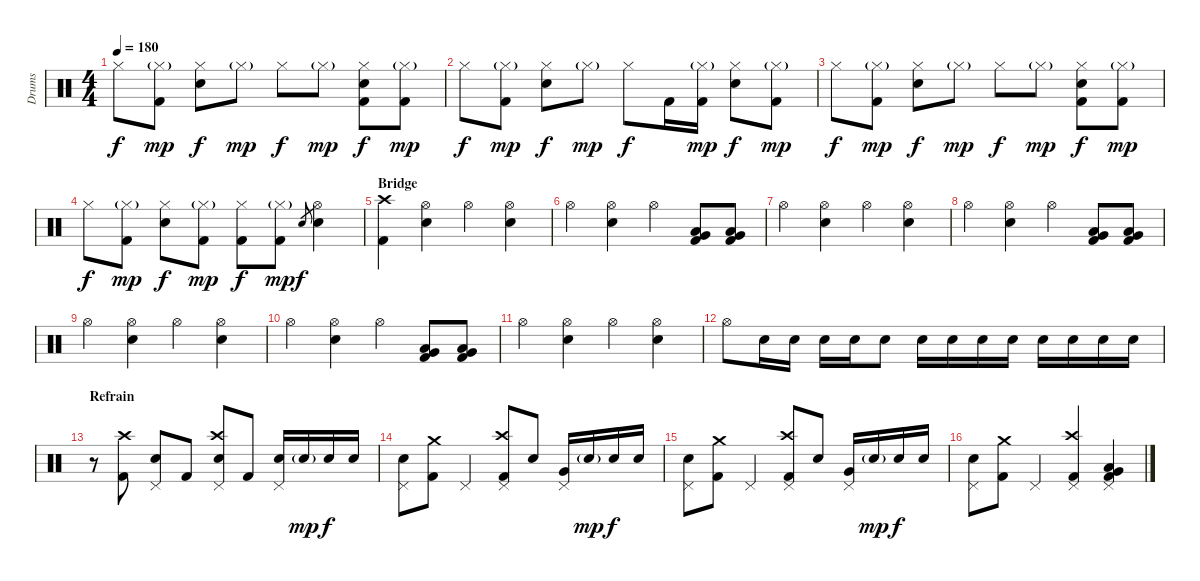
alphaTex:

\track ("Drums" "Drums") {instrument percussion}
\staff {score}
\articulation defaults
\ts (4 4)
\tempo 180
\clef neutral
\ks c "Hi-Hat (closed)".8{dy f}
("Hi-Hat (closed)"{g} "Kick (hit) 2").8{dy mp} ("Hi-Hat (closed)" "Snare (hit) 2").8{dy f} "Hi-Hat (closed)"{g}.8{dy mp} "Hi-Hat (closed)".8{dy f} "Hi-Hat (closed)"{g}.8{dy mp} ("Hi-Hat (closed)" "Snare (hit) 2" "Kick (hit) 2").8{dy f} ("Hi-Hat (closed)"{g} "Kick (hit) 2").8{dy mp} |
"Hi-Hat (closed)".8{dy f} ("Hi-Hat (closed)"{g} "Kick (hit) 2").8{dy mp} ("Hi-Hat (closed)" "Snare (hit) 2").8{dy f} "Hi-Hat (closed)"{g}.8{dy mp} "Hi-Hat (closed)".8{dy f} "Kick (hit) 2".16 ("Hi-Hat (closed)"{g} "Kick (hit) 2").16{dy mp} ("Hi-Hat (closed)" "Snare (hit) 2").8{dy f} ("Hi-Hat (closed)"{g} "Kick (hit) 2").8{dy mp} |
"Hi-Hat (closed)".8{dy f} ("Hi-Hat (closed)"{g} "Kick (hit) 2").8{dy mp} ("Hi-Hat (closed)" "Snare (hit) 2").8{dy f} "Hi-Hat (closed)"{g}.8{dy mp} "Hi-Hat (closed)".8{dy f} "Hi-Hat (closed)"{g}.8{dy mp} ("Hi-Hat (closed)" "Snare (hit) 2" "Kick (hit) 2").8{dy f} ("Hi-Hat (closed)"{g} "Kick (hit) 2").8{dy mp} |
"Hi-Hat (closed)".8{dy f} ("Hi-Hat (closed)"{g} "Kick (hit) 2").8{dy mp} ("Hi-Hat (closed)" "Snare (hit) 2").8{dy f} ("Hi-Hat (closed)"{g} "Kick (hit) 2").8{dy mp} ("Hi-Hat (closed)" "Kick (hit) 2").8{dy f} ("Hi-Hat (closed)"{g} "Kick (hit) 2").8{dy mp} "Snare (hit) 2".8{gr dy f} ("Hi-Hat (open)" "Snare (hit) 2").4 |
\section ("" "Bridge")
("Crash high (hit)" "Kick (hit) 2").4 ("Hi-Hat (open)" "Snare (hit) 2").4 "Hi-Hat (open)".4 ("Hi-Hat (open)" "Snare (hit) 2").4 |
"Hi-Hat (open)".4 ("Hi-Hat (open)" "Snare (hit) 2").4 "Hi-Hat (open)".4 ("Low Floor Tom (hit)" "Very Low Tom (hit)" "Kick (hit) 2").8 ("Low Floor Tom (hit)" "Very Low Tom (hit)" "Kick (hit) 2").8 |
"Hi-Hat (open)".4 ("Hi-Hat (open)" "Snare (hit) 2").4 "Hi-Hat (open)".4 ("Hi-Hat (open)" "Snare (hit) 2").4 |
"Hi-Hat (open)".4 ("Hi-Hat (open)" "Snare (hit) 2").4 "Hi-Hat (open)".4 ("Low Floor Tom (hit)" "Very Low Tom (hit)" "Kick (hit) 2").8 ("Low Floor Tom (hit)" "Very Low Tom (hit)" "Kick (hit) 2").8 |
"Hi-Hat (open)".4 ("Hi-Hat (open)" "Snare (hit) 2").4 "Hi-Hat (open)".4 ("Hi-Hat (open)" "Snare (hit) 2").4 |
"Hi-Hat (open)".4 ("Hi-Hat (open)" "Snare (hit) 2").4 "Hi-Hat (open)".4 ("Low Floor Tom (hit)" "Very Low Tom (hit)" "Kick (hit) 2").8 ("Low Floor Tom (hit)" "Very Low Tom (hit)" "Kick (hit) 2").8 |
"Hi-Hat (open)".4 ("Hi-Hat (open)" "Snare (hit) 2").4 "Hi-Hat (open)".4 ("Hi-Hat (open)" "Snare (hit) 2").4 |
"Hi-Hat (open)".8 "Snare (hit) 2".16 "Snare (hit) 2".16 "Snare (hit) 2".16 "Snare (hit) 2".16 "Snare (hit) 2".8 "Snare (hit) 2".16 "Snare (hit) 2".16 "Snare (hit) 2".16 "Snare (hit) 2".16 "Snare (hit) 2".16 "Snare (hit) 2".16 "Snare (hit) 2".16 "Snare (hit) 2".16 |
\section ("" "Refrain")
r.8 ("Crash high (hit)" "Kick (hit) 2").8 ("Pedal Hi-Hat (hit)" "Snare (hit) 2").8 "Kick (hit) 2".8 ("Crash high (hit)" "Pedal Hi-Hat (hit)" "Snare (hit) 2").8 "Kick (hit) 2".8 ("Pedal Hi-Hat (hit)" "Snare (hit) 2").16 "Snare (hit) 2"{g}.16{dy mp} "Snare (hit) 2".16{dy f} "Snare (hit) 2".16 |
("Pedal Hi-Hat (hit)" "Snare (hit) 2").8 ("Crash medium (hit)" "Kick (hit) 2").8 "Pedal Hi-Hat (hit)".4 ("Crash high (hit)" "Pedal Hi-Hat (hit)" "Kick (hit) 2").8 "Snare (hit) 2".8 ("Pedal Hi-Hat (hit)" "Very Low Tom (hit)").16 "Snare (hit) 2"{g}.16{dy mp} "Snare (hit) 2".16{dy f} "Snare (hit) 2".16 |
("Pedal Hi-Hat (hit)" "Snare (hit) 2").8 ("Crash medium (hit)" "Kick (hit) 2").8 "Pedal Hi-Hat (hit)".4 ("Crash high (hit)" "Pedal Hi-Hat (hit)" "Kick (hit) 2").8 "Snare (hit) 2".8 ("Pedal Hi-Hat (hit)" "Very Low Tom (hit)").16 "Snare (hit) 2"{g}.16{dy mp} "Snare (hit) 2".16{dy f} "Snare (hit) 2".16 |
("Pedal Hi-Hat (hit)" "Snare (hit) 2").8 ("Crash medium (hit)" "Kick (hit) 2").8 "Pedal Hi-Hat (hit)".4 ("Crash high (hit)" "Pedal Hi-Hat (hit)" "Kick (hit) 2").4 ("Pedal Hi-Hat (hit)" "Very Low Tom (hit)" "Low Floor Tom (hit)" "Kick (hit) 2").4
